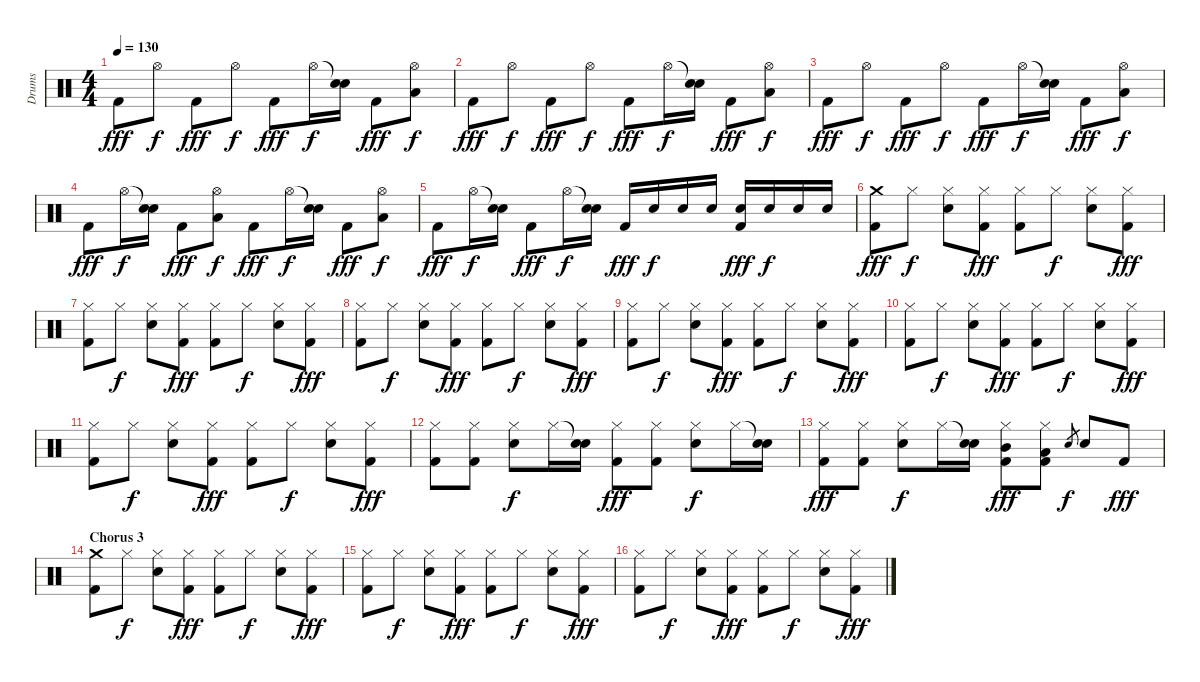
\track ("Drums" "Drums") {instrument percussion}
\staff {score}
\articulation defaults
\ts (4 4)
\tempo 130
\clef neutral
\ks c "Kick (hit) 2".8{dy fff} "Hi-Hat (open)".8{dy f} "Kick (hit) 2".8{dy fff} "Hi-Hat (open)".8{dy f} "Kick (hit) 2".8{dy fff} "Hi-Hat (open)".16{dy f}
("Snare (hit)"{t} "Snare (hit) 2").16 "Kick (hit) 2".8{dy fff} ("Hi-Hat (open)" "Low Tom (hit)").8{dy f} |
"Kick (hit) 2".8{dy fff} "Hi-Hat (open)".8{dy f} "Kick (hit) 2".8{dy fff} "Hi-Hat (open)".8{dy f} "Kick (hit) 2".8{dy fff} "Hi-Hat (open)".16{dy f} ("Snare (hit)"{t} "Snare (hit) 2").16 "Kick (hit) 2".8{dy fff} ("Hi-Hat (open)" "Low Tom (hit)").8{dy f} |
"Kick (hit) 2".8{dy fff} "Hi-Hat (open)".8{dy f} "Kick (hit) 2".8{dy fff} "Hi-Hat (open)".8{dy f} "Kick (hit) 2".8{dy fff} "Hi-Hat (open)".16{dy f} ("Snare (hit)"{t} "Snare (hit) 2").16 "Kick (hit) 2".8{dy fff} ("Hi-Hat (open)" "Low Tom (hit)").8{dy f} |
"Kick (hit) 2".8{dy fff} "Hi-Hat (open)".16{dy f} ("Snare (hit)"{t} "Snare (hit) 2").16 "Kick (hit) 2".8{dy fff} ("Hi-Hat (open)" "Low Tom (hit)").8{dy f} "Kick (hit) 2".8{dy fff} "Hi-Hat (open)".16{dy f} ("Snare (hit)"{t} "Snare (hit) 2").16 "Kick (hit) 2".8{dy fff} ("Hi-Hat (open)" "Low Tom (hit)").8{dy f} |
"Kick (hit) 2".8{dy fff} "Hi-Hat (open)".16{dy f} ("Snare (hit)"{t} "Snare (hit) 2").16 "Kick (hit) 2".8{dy fff} "Hi-Hat (open)".16{dy f} ("Snare (hit)"{t} "Snare (hit) 2").16 "Kick (hit) 2".16{dy fff} "Snare (hit) 2".16{dy f} "Snare (hit) 2".16 "Snare (hit) 2".16 ("Snare (hit) 2" "Kick (hit) 2").16{dy fff} "Snare (hit) 2".16{dy f} "Snare (hit) 2".16 "Snare (hit) 2".16 |
("Crash medium (hit)" "Kick (hit) 2").8{dy fff} "Hi-Hat (closed)".8{dy f} ("Hi-Hat (closed)" "Snare (hit) 2").8 ("Hi-Hat (closed)" "Kick (hit) 2").8{dy fff} ("Hi-Hat (closed)" "Kick (hit) 2").8 "Hi-Hat (closed)".8{dy f} ("Hi-Hat (closed)" "Snare (hit) 2").8 ("Hi-Hat (closed)" "Kick (hit) 2").8{dy fff} |
("Hi-Hat (closed)" "Kick (hit) 2").8 "Hi-Hat (closed)".8{dy f} ("Hi-Hat (closed)" "Snare (hit) 2").8 ("Hi-Hat (closed)" "Kick (hit) 2").8{dy fff} ("Hi-Hat (closed)" "Kick (hit) 2").8 "Hi-Hat (closed)".8{dy f} ("Hi-Hat (closed)" "Snare (hit) 2").8 ("Hi-Hat (closed)" "Kick (hit) 2").8{dy fff} |
("Hi-Hat (closed)" "Kick (hit) 2").8 "Hi-Hat (closed)".8{dy f} ("Hi-Hat (closed)" "Snare (hit) 2").8 ("Hi-Hat (closed)" "Kick (hit) 2").8{dy fff} ("Hi-Hat (closed)" "Kick (hit) 2").8 "Hi-Hat (closed)".8{dy f} ("Hi-Hat (closed)" "Snare (hit) 2").8 ("Hi-Hat (closed)" "Kick (hit) 2").8{dy fff} |
("Hi-Hat (closed)" "Kick (hit) 2").8 "Hi-Hat (closed)".8{dy f} ("Hi-Hat (closed)" "Snare (hit) 2").8 ("Hi-Hat (closed)" "Kick (hit) 2").8{dy fff} ("Hi-Hat (closed)" "Kick (hit) 2").8 "Hi-Hat (closed)".8{dy f} ("Hi-Hat (closed)" "Snare (hit) 2").8 ("Hi-Hat (closed)" "Kick (hit) 2").8{dy fff} |
("Hi-Hat (closed)" "Kick (hit) 2").8 "Hi-Hat (closed)".8{dy f} ("Hi-Hat (closed)" "Snare (hit) 2").8 ("Hi-Hat (closed)" "Kick (hit) 2").8{dy fff} ("Hi-Hat (closed)" "Kick (hit) 2").8 "Hi-Hat (closed)".8{dy f} ("Hi-Hat (closed)" "Snare (hit) 2").8 ("Hi-Hat (closed)" "Kick (hit) 2").8{dy fff} |
("Hi-Hat (closed)" "Kick (hit) 2").8 "Hi-Hat (closed)".8{dy f} ("Hi-Hat (closed)" "Snare (hit) 2").8 ("Hi-Hat (closed)" "Kick (hit) 2").8{dy fff} ("Hi-Hat (closed)" "Kick (hit) 2").8 "Hi-Hat (closed)".8{dy f} ("Hi-Hat (closed)" "Snare (hit) 2").8 ("Hi-Hat (closed)" "Kick (hit) 2").8{dy fff} |
("Hi-Hat (closed)" "Kick (hit) 2").8 ("Hi-Hat (closed)" "Kick (hit) 2").8 ("Hi-Hat (closed)" "Snare (hit) 2").8{dy f} "Hi-Hat (closed)".16 ("Snare (hit)"{t} "Snare (hit) 2").16 ("Hi-Hat (closed)" "Kick (hit) 2").8{dy fff} ("Hi-Hat (closed)" "Kick (hit) 2").8 ("Hi-Hat (closed)" "Snare (hit) 2").8{dy f} "Hi-Hat (closed)".16 ("Snare (hit)"{t} "Snare (hit) 2").16 |
("Hi-Hat (closed)" "Kick (hit) 2").8{dy fff} ("Hi-Hat (closed)" "Kick (hit) 2").8 ("Hi-Hat (closed)" "Snare (hit) 2").8{dy f} "Hi-Hat (closed)".16 ("Snare (hit)"{t} "Snare (hit) 2").16 ("Hi-Hat (closed)" "Mid Tom (hit)" "Kick (hit) 2").8{dy fff} ("Hi-Hat (closed)" "Low Tom (hit)" "Kick (hit) 2").8 "Snare (hit) 2".8{gr dy f} "Snare (hit) 2".8 "Kick (hit) 2".8{dy fff} |
\section ("" "Chorus 3")
("Crash medium (hit)" "Kick (hit) 2").8 "Hi-Hat (closed)".8{dy f} ("Hi-Hat (closed)" "Snare (hit) 2").8 ("Hi-Hat (closed)" "Kick (hit) 2").8{dy fff} ("Hi-Hat (closed)" "Kick (hit) 2").8 "Hi-Hat (closed)".8{dy f} ("Hi-Hat (closed)" "Snare (hit) 2").8 ("Hi-Hat (closed)" "Kick (hit) 2").8{dy fff} |
("Hi-Hat (closed)" "Kick (hit) 2").8 "Hi-Hat (closed)".8{dy f} ("Hi-Hat (closed)" "Snare (hit) 2").8 ("Hi-Hat (closed)" "Kick (hit) 2").8{dy fff} ("Hi-Hat (closed)" "Kick (hit) 2").8 "Hi-Hat (closed)".8{dy f} ("Hi-Hat (closed)" "Snare (hit) 2").8 ("Hi-Hat (closed)" "Kick (hit) 2").8{dy fff} |
("Hi-Hat (closed)" "Kick (hit) 2").8 "Hi-Hat (closed)".8{dy f} ("Hi-Hat (closed)" "Snare (hit) 2").8 ("Hi-Hat (closed)" "Kick (hit) 2").8{dy fff} ("Hi-Hat (closed)" "Kick (hit) 2").8 "Hi-Hat (closed)".8{dy f} ("Hi-Hat (closed)" "Snare (hit) 2").8 ("Hi-Hat (closed)" "Kick (hit) 2").8{dy fff}
